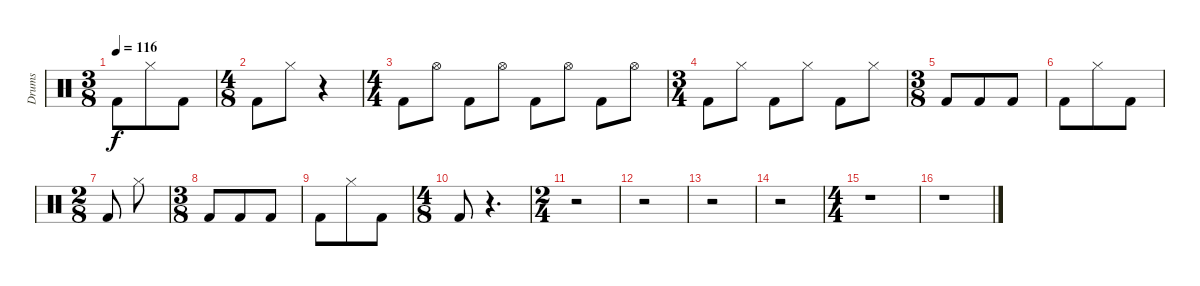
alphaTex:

\track ("Drums" "Drums") {instrument percussion}
\staff {score}
\articulation defaults
\ts (3 8)
\tempo 116
\clef neutral
\ks c "Kick (hit) 2".8{dy f} "Hi-Hat (closed)".8 "Kick (hit) 2".8
|
\ts (4 8)
"Kick (hit) 2".8 "Hi-Hat (closed)".8 r.4 |
\ts (4 4)
"Kick (hit) 2".8 "Hi-Hat (open)".8 "Kick (hit) 2".8 "Hi-Hat (open)".8 "Kick (hit) 2".8 "Hi-Hat (open)".8 "Kick (hit) 2".8 "Hi-Hat (open)".8 |
\ts (3 4)
"Kick (hit) 2".8 "Hi-Hat (closed)".8 "Kick (hit) 2".8 "Hi-Hat (closed)".8 "Kick (hit) 2".8 "Hi-Hat (closed)".8 |
\ts (3 8)
"Kick (hit) 2".8 "Kick (hit) 2".8 "Kick (hit) 2".8 |
"Kick (hit) 2".8 "Hi-Hat (closed)".8 "Kick (hit) 2".8 |
\ts (2 8)
"Kick (hit) 2".8 "Hi-Hat (closed)".8 |
\ts (3 8)
"Kick (hit) 2".8 "Kick (hit) 2".8 "Kick (hit) 2".8 |
"Kick (hit) 2".8 "Hi-Hat (closed)".8 "Kick (hit) 2".8 |
\ts (4 8)
"Kick (hit) 2".8 r.4{d} |
\ts (2 4)
r.2 |
r.2 |
r.2 |
r.2 |
\ts (4 4)
r.1 |
r.1
